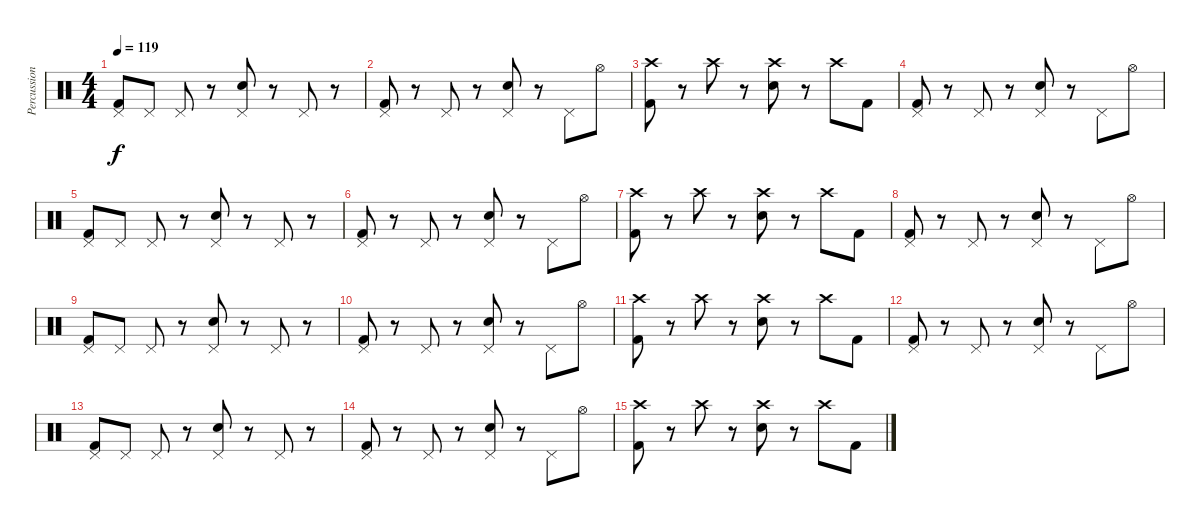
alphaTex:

\track ("Percussion" "Percussion") {instrument percussion}
\staff {score}
\articulation defaults
\ts (4 4)
\tempo 119
\clef neutral
\ks c
("Pedal Hi-Hat (hit)" "Kick (hit) 2").8{dy f} "Pedal Hi-Hat (hit)".8 "Pedal Hi-Hat (hit)".8 r.8 ("Pedal Hi-Hat (hit)" "Snare (hit) 2").8 r.8 "Pedal Hi-Hat (hit)".8 r.8 |
("Pedal Hi-Hat (hit)" "Kick (hit) 2").8 r.8 "Pedal Hi-Hat (hit)".8 r.8 ("Pedal Hi-Hat (hit)" "Snare (hit) 2").8 r.8 "Pedal Hi-Hat (hit)".8 "Hi-Hat (open)".8 |
("Crash high (hit)" "Kick (hit) 2").8 r.8 "Crash high (hit)".8 r.8 ("Crash high (hit)" "Snare (hit) 2").8 r.8 "Crash high (hit)".8 "Kick (hit) 2".8 |
("Pedal Hi-Hat (hit)" "Kick (hit) 2").8 r.8 "Pedal Hi-Hat (hit)".8 r.8 ("Pedal Hi-Hat (hit)" "Snare (hit) 2").8 r.8 "Pedal Hi-Hat (hit)".8 "Hi-Hat (open)".8 |
("Pedal Hi-Hat (hit)" "Kick (hit) 2").8 "Pedal Hi-Hat (hit)".8 "Pedal Hi-Hat (hit)".8 r.8 ("Pedal Hi-Hat (hit)" "Snare (hit) 2").8 r.8 "Pedal Hi-Hat (hit)".8 r.8 |
("Pedal Hi-Hat (hit)" "Kick (hit) 2").8 r.8 "Pedal Hi-Hat (hit)".8 r.8 ("Pedal Hi-Hat (hit)" "Snare (hit) 2").8 r.8 "Pedal Hi-Hat (hit)".8 "Hi-Hat (open)".8 |
("Crash high (hit)" "Kick (hit) 2").8 r.8 "Crash high (hit)".8 r.8 ("Crash high (hit)" "Snare (hit) 2").8 r.8 "Crash high (hit)".8 "Kick (hit) 2".8 |
("Pedal Hi-Hat (hit)" "Kick (hit) 2").8 r.8 "Pedal Hi-Hat (hit)".8 r.8 ("Pedal Hi-Hat (hit)" "Snare (hit) 2").8 r.8 "Pedal Hi-Hat (hit)".8 "Hi-Hat (open)".8 |
("Pedal Hi-Hat (hit)" "Kick (hit) 2").8 "Pedal Hi-Hat (hit)".8 "Pedal Hi-Hat (hit)".8 r.8 ("Pedal Hi-Hat (hit)" "Snare (hit) 2").8 r.8 "Pedal Hi-Hat (hit)".8 r.8 |
("Pedal Hi-Hat (hit)" "Kick (hit) 2").8 r.8 "Pedal Hi-Hat (hit)".8 r.8 ("Pedal Hi-Hat (hit)" "Snare (hit) 2").8 r.8 "Pedal Hi-Hat (hit)".8 "Hi-Hat (open)".8 |
("Crash high (hit)" "Kick (hit) 2").8 r.8 "Crash high (hit)".8 r.8 ("Crash high (hit)" "Snare (hit) 2").8 r.8 "Crash high (hit)".8 "Kick (hit) 2".8 |
("Pedal Hi-Hat (hit)" "Kick (hit) 2").8 r.8 "Pedal Hi-Hat (hit)".8 r.8 ("Pedal Hi-Hat (hit)" "Snare (hit) 2").8 r.8 "Pedal Hi-Hat (hit)".8 "Hi-Hat (open)".8 |
("Pedal Hi-Hat (hit)" "Kick (hit) 2").8 "Pedal Hi-Hat (hit)".8 "Pedal Hi-Hat (hit)".8 r.8 ("Pedal Hi-Hat (hit)" "Snare (hit) 2").8 r.8 "Pedal Hi-Hat (hit)".8 r.8 |
("Pedal Hi-Hat (hit)" "Kick (hit) 2").8 r.8 "Pedal Hi-Hat (hit)".8 r.8 ("Pedal Hi-Hat (hit)" "Snare (hit) 2").8 r.8 "Pedal Hi-Hat (hit)".8 "Hi-Hat (open)".8 |
("Crash high (hit)" "Kick (hit) 2").8 r.8 "Crash high (hit)".8 r.8 ("Crash high (hit)" "Snare (hit) 2").8 r.8 "Crash high (hit)".8 "Kick (hit) 2".8
